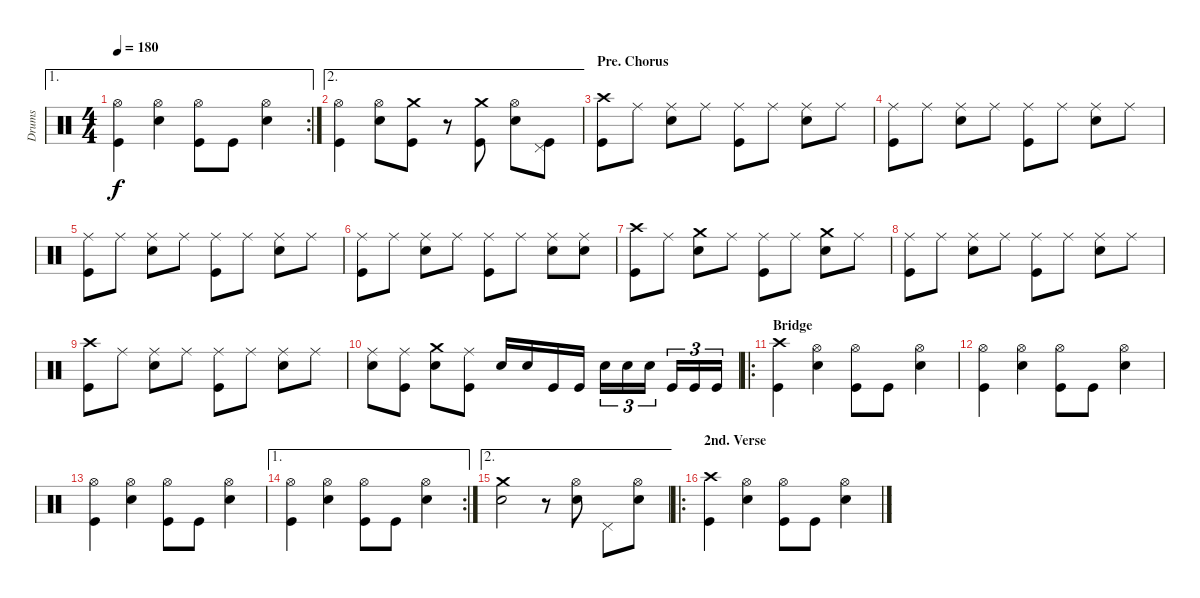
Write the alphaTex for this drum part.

\track ("Drums" "Drums") {instrument percussion}
\staff {score}
\articulation defaults
\ae 1
\rc 2
\ts (4 4)
\tempo 180
\clef neutral
\ks c
("Hi-Hat (open)" "Kick (hit)").4{dy f} ("Hi-Hat (open)" "Snare (hit) 2").4 ("Hi-Hat (open)" "Kick (hit)").8 "Kick (hit)".8 ("Hi-Hat (open)" "Snare (hit) 2").4 |
\ae 2
("Hi-Hat (open)" "Kick (hit)").4 ("Hi-Hat (open)" "Snare (hit) 2").8 ("Crash medium (hit)" "Kick (hit)").8 r.8 ("Crash medium (hit)" "Kick (hit)").8 ("Hi-Hat (open)" "Snare (hit) 2").8 ("Pedal Hi-Hat (hit)" "Kick (hit)").8 |
\section ("" "Pre. Chorus")
("Crash high (hit)" "Kick (hit)").8 "Ride (middle)".8 ("Ride (middle)" "Snare (hit) 2").8 "Ride (middle)".8 ("Ride (middle)" "Kick (hit)").8 "Ride (middle)".8 ("Ride (middle)" "Snare (hit) 2").8 "Ride (middle)".8 |
("Ride (middle)" "Kick (hit)").8 "Ride (middle)".8 ("Ride (middle)" "Snare (hit) 2").8 "Ride (middle)".8 ("Ride (middle)" "Kick (hit)").8 "Ride (middle)".8 ("Ride (middle)" "Snare (hit) 2").8 "Ride (middle)".8 |
("Ride (middle)" "Kick (hit)").8 "Ride (middle)".8 ("Ride (middle)" "Snare (hit) 2").8 "Ride (middle)".8 ("Ride (middle)" "Kick (hit)").8 "Ride (middle)".8 ("Ride (middle)" "Snare (hit) 2").8 "Ride (middle)".8 |
("Ride (middle)" "Kick (hit)").8 "Ride (middle)".8 ("Ride (middle)" "Snare (hit) 2").8 "Ride (middle)".8 ("Ride (middle)" "Kick (hit)").8 "Ride (middle)".8 ("Ride (middle)" "Snare (hit) 2").8 ("Ride (middle)" "Snare (hit) 2").8 |
("Crash high (hit)" "Kick (hit)").8 "Ride (middle)".8 ("Crash medium (hit)" "Snare (hit) 2").8 "Ride (middle)".8 ("Ride (middle)" "Kick (hit)").8 "Ride (middle)".8 ("Crash medium (hit)" "Snare (hit) 2").8 "Ride (middle)".8 |
("Ride (middle)" "Kick (hit)").8 "Ride (middle)".8 ("Ride (middle)" "Snare (hit) 2").8 "Ride (middle)".8 ("Ride (middle)" "Kick (hit)").8 "Ride (middle)".8 ("Ride (middle)" "Snare (hit) 2").8 "Ride (middle)".8 |
("Crash high (hit)" "Kick (hit)").8 "Ride (middle)".8 ("Ride (middle)" "Snare (hit) 2").8 "Ride (middle)".8 ("Ride (middle)" "Kick (hit)").8 "Ride (middle)".8 ("Ride (middle)" "Snare (hit) 2").8 "Ride (middle)".8 |
("Ride (middle)" "Snare (hit) 2").8 ("Ride (middle)" "Kick (hit)").8 ("Crash medium (hit)" "Snare (hit) 2").8 ("Ride (middle)" "Kick (hit)").8 "Snare (hit) 2".16 "Snare (hit) 2".16 "Kick (hit)".16 "Kick (hit)".16 "Snare (hit) 2".16{tu (3 2)} "Snare (hit) 2".16{tu (3 2)} "Snare (hit) 2".16{tu (3 2)} "Kick (hit)".16{tu (3 2)} "Kick (hit)".16{tu (3 2)} "Kick (hit)".16{tu (3 2)} |
\ro
\section ("" "Bridge")
("Crash high (hit)" "Kick (hit)").4 ("Hi-Hat (open)" "Snare (hit) 2").4 ("Hi-Hat (open)" "Kick (hit)").8 "Kick (hit)".8 ("Hi-Hat (open)" "Snare (hit) 2").4 |
("Hi-Hat (open)" "Kick (hit)").4 ("Hi-Hat (open)" "Snare (hit) 2").4 ("Hi-Hat (open)" "Kick (hit)").8 "Kick (hit)".8 ("Hi-Hat (open)" "Snare (hit) 2").4 |
("Hi-Hat (open)" "Kick (hit)").4 ("Hi-Hat (open)" "Snare (hit) 2").4 ("Hi-Hat (open)" "Kick (hit)").8 "Kick (hit)".8 ("Hi-Hat (open)" "Snare (hit) 2").4 |
\ae 1
\rc 2
("Hi-Hat (open)" "Kick (hit)").4 ("Hi-Hat (open)" "Snare (hit) 2").4 ("Hi-Hat (open)" "Kick (hit)").8 "Kick (hit)".8 ("Hi-Hat (open)" "Snare (hit) 2").4 |
\ae 2
("Crash medium (hit)" "Snare (hit) 2").2 r.8 ("Hi-Hat (open)" "Snare (hit) 2").8 "Pedal Hi-Hat (hit)".8 ("Hi-Hat (open)" "Snare (hit) 2").8 |
\ro
\section ("" "2nd. Verse")
("Crash high (hit)" "Kick (hit)").4 ("Hi-Hat (open)" "Snare (hit) 2").4 ("Hi-Hat (open)" "Kick (hit)").8 "Kick (hit)".8 ("Hi-Hat (open)" "Snare (hit) 2").4
